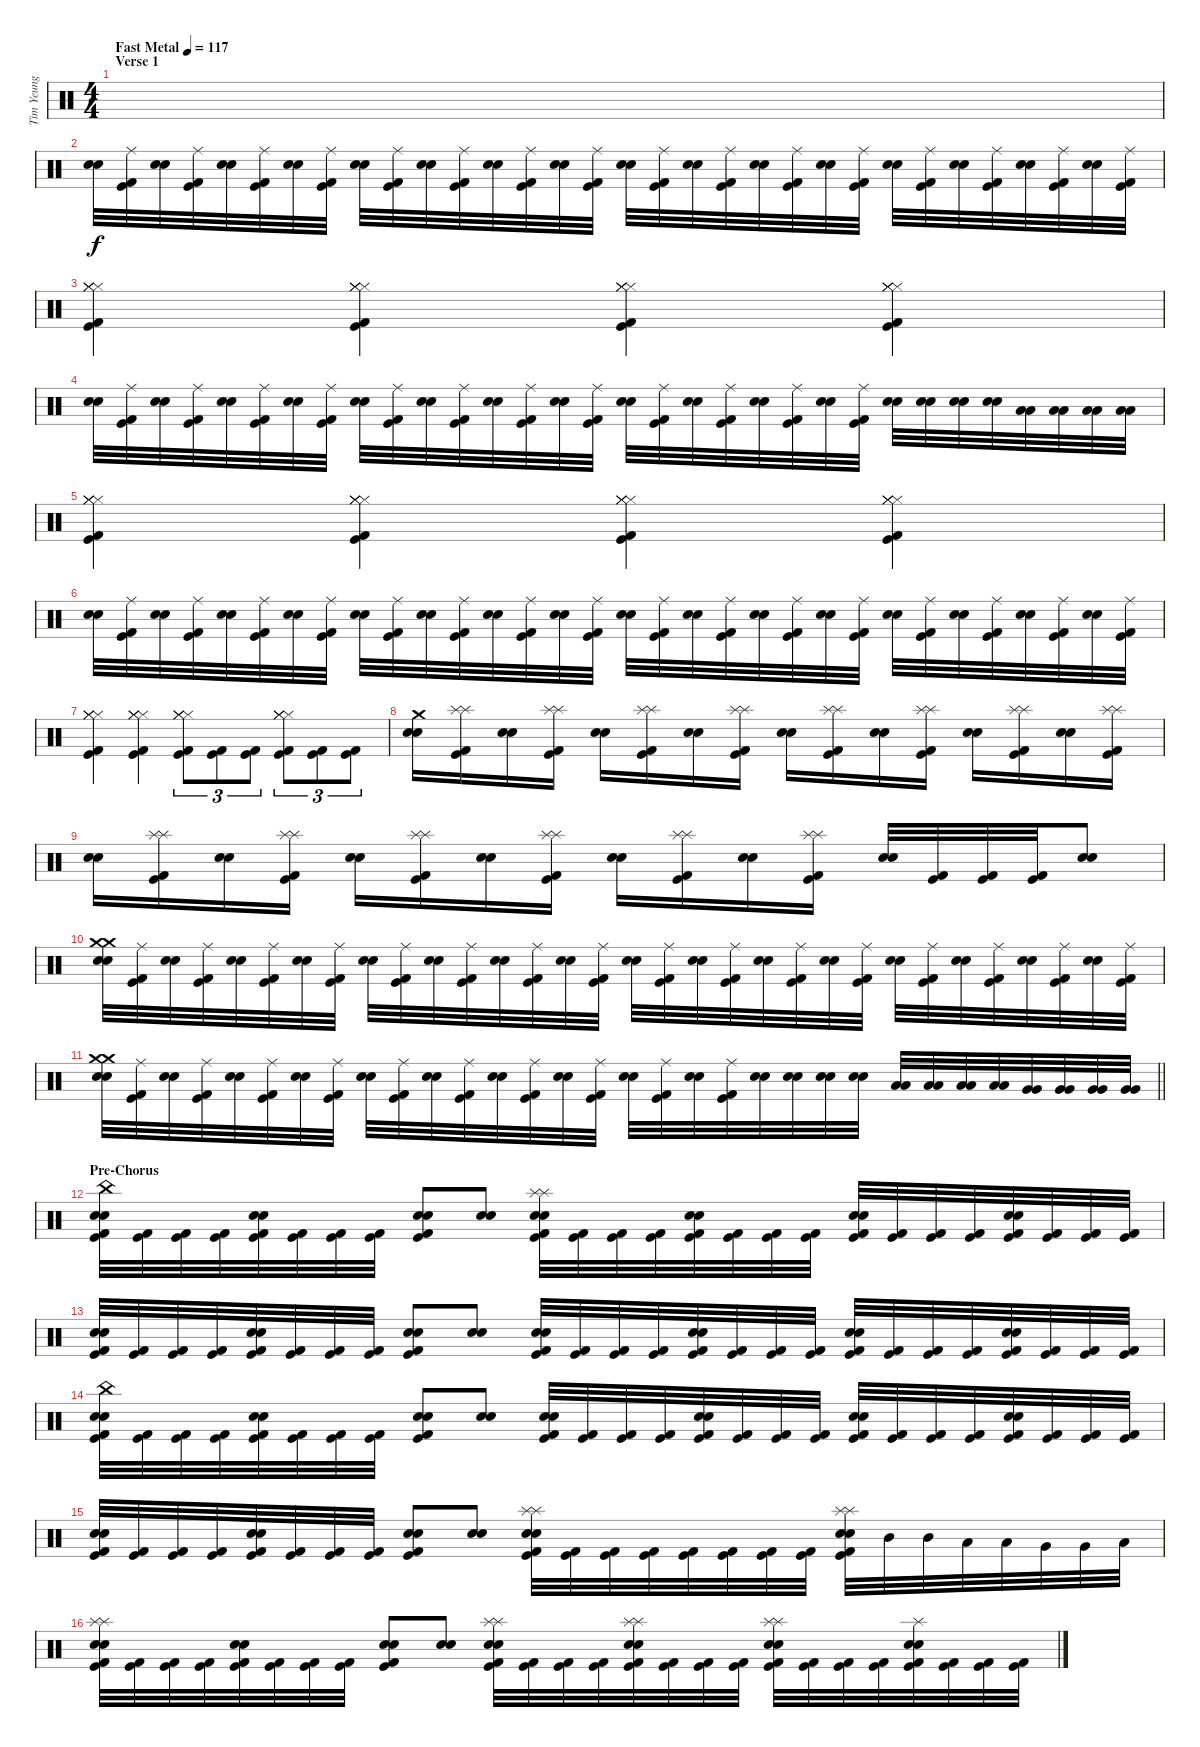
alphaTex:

\track ("Tim Yeung" "Tim Yeung") {instrument percussion}
\staff {score}
\articulation defaults
\ts (4 4)
\section ("" "Verse 1")
\tempo (117 "Fast Metal")
\clef neutral
\ks c
|
("Electric Snare (hit)" "Snare (hit) 2").32 ("Ride (middle)" "Kick (hit)" "Kick (hit) 2").32 ("Electric Snare (hit)" "Snare (hit) 2").32 ("Ride (middle)" "Kick (hit)" "Kick (hit) 2").32 ("Electric Snare (hit)" "Snare (hit) 2").32 ("Ride (middle)" "Kick (hit)" "Kick (hit) 2").32 ("Electric Snare (hit)" "Snare (hit) 2").32 ("Ride (middle)" "Kick (hit)" "Kick (hit) 2").32 ("Electric Snare (hit)" "Snare (hit) 2").32 ("Ride (middle)" "Kick (hit)" "Kick (hit) 2").32 ("Electric Snare (hit)" "Snare (hit) 2").32 ("Ride (middle)" "Kick (hit)" "Kick (hit) 2").32 ("Electric Snare (hit)" "Snare (hit) 2").32 ("Ride (middle)" "Kick (hit)" "Kick (hit) 2").32 ("Electric Snare (hit)" "Snare (hit) 2").32 ("Ride (middle)" "Kick (hit)" "Kick (hit) 2").32 ("Electric Snare (hit)" "Snare (hit) 2").32 ("Ride (middle)" "Kick (hit)" "Kick (hit) 2").32 ("Electric Snare (hit)" "Snare (hit) 2").32 ("Ride (middle)" "Kick (hit)" "Kick (hit) 2").32 ("Electric Snare (hit)" "Snare (hit) 2").32 ("Ride (middle)" "Kick (hit)" "Kick (hit) 2").32 ("Electric Snare (hit)" "Snare (hit) 2").32 ("Ride (middle)" "Kick (hit)" "Kick (hit) 2").32 ("Electric Snare (hit)" "Snare (hit) 2").32 ("Ride (middle)" "Kick (hit)" "Kick (hit) 2").32 ("Electric Snare (hit)" "Snare (hit) 2").32 ("Ride (middle)" "Kick (hit)" "Kick (hit) 2").32 ("Electric Snare (hit)" "Snare (hit) 2").32 ("Ride (middle)" "Kick (hit)" "Kick (hit) 2").32 ("Electric Snare (hit)" "Snare (hit) 2").32 ("Ride (middle)" "Kick (hit)" "Kick (hit) 2").32 |
("Hi-Hat (closed)" "Hi-Hat (closed)" "Hi-Hat (closed)" "Hi-Hat (closed)" "Kick (hit)" "Kick (hit) 2").4 ("Hi-Hat (closed)" "Hi-Hat (closed)" "Hi-Hat (closed)" "Hi-Hat (closed)" "Kick (hit)" "Kick (hit) 2").4 ("Hi-Hat (closed)" "Hi-Hat (closed)" "Hi-Hat (closed)" "Hi-Hat (closed)" "Kick (hit)" "Kick (hit) 2").4 ("Hi-Hat (closed)" "Hi-Hat (closed)" "Hi-Hat (closed)" "Hi-Hat (closed)" "Kick (hit)" "Kick (hit) 2").4 |
("Electric Snare (hit)" "Snare (hit) 2").32 ("Ride (middle)" "Kick (hit)" "Kick (hit) 2").32 ("Electric Snare (hit)" "Snare (hit) 2").32 ("Ride (middle)" "Kick (hit)" "Kick (hit) 2").32 ("Electric Snare (hit)" "Snare (hit) 2").32 ("Ride (middle)" "Kick (hit)" "Kick (hit) 2").32 ("Electric Snare (hit)" "Snare (hit) 2").32 ("Ride (middle)" "Kick (hit)" "Kick (hit) 2").32 ("Electric Snare (hit)" "Snare (hit) 2").32 ("Ride (middle)" "Kick (hit)" "Kick (hit) 2").32 ("Electric Snare (hit)" "Snare (hit) 2").32 ("Ride (middle)" "Kick (hit)" "Kick (hit) 2").32 ("Electric Snare (hit)" "Snare (hit) 2").32 ("Ride (middle)" "Kick (hit)" "Kick (hit) 2").32 ("Electric Snare (hit)" "Snare (hit) 2").32 ("Ride (middle)" "Kick (hit)" "Kick (hit) 2").32 ("Electric Snare (hit)" "Snare (hit) 2").32 ("Ride (middle)" "Kick (hit)" "Kick (hit) 2").32 ("Electric Snare (hit)" "Snare (hit) 2").32 ("Ride (middle)" "Kick (hit)" "Kick (hit) 2").32 ("Electric Snare (hit)" "Snare (hit) 2").32 ("Ride (middle)" "Kick (hit)" "Kick (hit) 2").32 ("Electric Snare (hit)" "Snare (hit) 2").32 ("Ride (middle)" "Kick (hit)" "Kick (hit) 2").32 ("Electric Snare (hit)" "Snare (hit) 2").32 ("Electric Snare (hit)" "Snare (hit) 2").32 ("Electric Snare (hit)" "Snare (hit) 2").32 ("Electric Snare (hit)" "Snare (hit) 2").32 ("Low Tom (hit)" "Low Tom (hit)").32 ("Low Tom (hit)" "Low Tom (hit)").32 ("Low Tom (hit)" "Low Tom (hit)").32 ("Low Tom (hit)" "Low Tom (hit)").32 |
("Hi-Hat (closed)" "Hi-Hat (closed)" "Hi-Hat (closed)" "Hi-Hat (closed)" "Kick (hit)" "Kick (hit) 2").4 ("Hi-Hat (closed)" "Hi-Hat (closed)" "Hi-Hat (closed)" "Hi-Hat (closed)" "Kick (hit)" "Kick (hit) 2").4 ("Hi-Hat (closed)" "Hi-Hat (closed)" "Hi-Hat (closed)" "Hi-Hat (closed)" "Kick (hit)" "Kick (hit) 2").4 ("Hi-Hat (closed)" "Hi-Hat (closed)" "Hi-Hat (closed)" "Hi-Hat (closed)" "Kick (hit)" "Kick (hit) 2").4 |
("Electric Snare (hit)" "Snare (hit) 2").32 ("Ride (middle)" "Kick (hit)" "Kick (hit) 2").32 ("Electric Snare (hit)" "Snare (hit) 2").32 ("Ride (middle)" "Kick (hit)" "Kick (hit) 2").32 ("Electric Snare (hit)" "Snare (hit) 2").32 ("Ride (middle)" "Kick (hit)" "Kick (hit) 2").32 ("Electric Snare (hit)" "Snare (hit) 2").32 ("Ride (middle)" "Kick (hit)" "Kick (hit) 2").32 ("Electric Snare (hit)" "Snare (hit) 2").32 ("Ride (middle)" "Kick (hit)" "Kick (hit) 2").32 ("Electric Snare (hit)" "Snare (hit) 2").32 ("Ride (middle)" "Kick (hit)" "Kick (hit) 2").32 ("Electric Snare (hit)" "Snare (hit) 2").32 ("Ride (middle)" "Kick (hit)" "Kick (hit) 2").32 ("Electric Snare (hit)" "Snare (hit) 2").32 ("Ride (middle)" "Kick (hit)" "Kick (hit) 2").32 ("Electric Snare (hit)" "Snare (hit) 2").32 ("Ride (middle)" "Kick (hit)" "Kick (hit) 2").32 ("Electric Snare (hit)" "Snare (hit) 2").32 ("Ride (middle)" "Kick (hit)" "Kick (hit) 2").32 ("Electric Snare (hit)" "Snare (hit) 2").32 ("Ride (middle)" "Kick (hit)" "Kick (hit) 2").32 ("Electric Snare (hit)" "Snare (hit) 2").32 ("Ride (middle)" "Kick (hit)" "Kick (hit) 2").32 ("Electric Snare (hit)" "Snare (hit) 2").32 ("Ride (middle)" "Kick (hit)" "Kick (hit) 2").32 ("Electric Snare (hit)" "Snare (hit) 2").32 ("Ride (middle)" "Kick (hit)" "Kick (hit) 2").32 ("Electric Snare (hit)" "Snare (hit) 2").32 ("Ride (middle)" "Kick (hit)" "Kick (hit) 2").32 ("Electric Snare (hit)" "Snare (hit) 2").32 ("Ride (middle)" "Kick (hit)" "Kick (hit) 2").32 |
("Hi-Hat (closed)" "Hi-Hat (closed)" "Hi-Hat (closed)" "Hi-Hat (closed)" "Kick (hit)" "Kick (hit) 2").4 ("Hi-Hat (closed)" "Hi-Hat (closed)" "Hi-Hat (closed)" "Hi-Hat (closed)" "Kick (hit)" "Kick (hit) 2").4 ("Hi-Hat (closed)" "Hi-Hat (closed)" "Hi-Hat (closed)" "Hi-Hat (closed)" "Kick (hit)" "Kick (hit) 2").8{tu (3 2)} ("Kick (hit)" "Kick (hit) 2").8{tu (3 2)} ("Kick (hit)" "Kick (hit) 2").8{tu (3 2)} ("Hi-Hat (closed)" "Hi-Hat (closed)" "Hi-Hat (closed)" "Hi-Hat (closed)" "Kick (hit)" "Kick (hit) 2").8{tu (3 2)} ("Kick (hit)" "Kick (hit) 2").8{tu (3 2)} ("Kick (hit)" "Kick (hit) 2").8{tu (3 2)} |
("Crash medium (hit)" "Electric Snare (hit)" "Snare (hit) 2").16 ("Splash (hit)" "Splash (hit)" "Kick (hit)" "Kick (hit) 2").16 ("Electric Snare (hit)" "Snare (hit) 2").16 ("Splash (hit)" "Splash (hit)" "Kick (hit)" "Kick (hit) 2").16 ("Electric Snare (hit)" "Snare (hit) 2").16 ("Splash (hit)" "Splash (hit)" "Kick (hit)" "Kick (hit) 2").16 ("Electric Snare (hit)" "Snare (hit) 2").16 ("Splash (hit)" "Splash (hit)" "Kick (hit)" "Kick (hit) 2").16 ("Electric Snare (hit)" "Snare (hit) 2").16 ("Splash (hit)" "Splash (hit)" "Kick (hit)" "Kick (hit) 2").16 ("Electric Snare (hit)" "Snare (hit) 2").16 ("Splash (hit)" "Splash (hit)" "Kick (hit)" "Kick (hit) 2").16 ("Electric Snare (hit)" "Snare (hit) 2").16 ("Splash (hit)" "Splash (hit)" "Kick (hit)" "Kick (hit) 2").16 ("Electric Snare (hit)" "Snare (hit) 2").16 ("Splash (hit)" "Splash (hit)" "Kick (hit)" "Kick (hit) 2").16 |
("Electric Snare (hit)" "Snare (hit) 2").16 ("Splash (hit)" "Splash (hit)" "Kick (hit)" "Kick (hit) 2").16 ("Electric Snare (hit)" "Snare (hit) 2").16 ("Splash (hit)" "Splash (hit)" "Kick (hit)" "Kick (hit) 2").16 ("Electric Snare (hit)" "Snare (hit) 2").16 ("Splash (hit)" "Splash (hit)" "Kick (hit)" "Kick (hit) 2").16 ("Electric Snare (hit)" "Snare (hit) 2").16 ("Splash (hit)" "Splash (hit)" "Kick (hit)" "Kick (hit) 2").16 ("Electric Snare (hit)" "Snare (hit) 2").16 ("Splash (hit)" "Splash (hit)" "Kick (hit)" "Kick (hit) 2").16 ("Electric Snare (hit)" "Snare (hit) 2").16 ("Splash (hit)" "Splash (hit)" "Kick (hit)" "Kick (hit) 2").16 ("Electric Snare (hit)" "Snare (hit) 2").32 ("Kick (hit)" "Kick (hit) 2").32 ("Kick (hit)" "Kick (hit) 2").32 ("Kick (hit)" "Kick (hit) 2").32 ("Electric Snare (hit)" "Snare (hit) 2").8 |
("Crash medium (hit)" "Crash medium (hit)" "Electric Snare (hit)" "Snare (hit) 2").32 ("Ride (middle)" "Kick (hit)" "Kick (hit) 2").32 ("Electric Snare (hit)" "Snare (hit) 2").32 ("Ride (middle)" "Kick (hit)" "Kick (hit) 2").32 ("Electric Snare (hit)" "Snare (hit) 2").32 ("Ride (middle)" "Kick (hit)" "Kick (hit) 2").32 ("Electric Snare (hit)" "Snare (hit) 2").32 ("Ride (middle)" "Kick (hit)" "Kick (hit) 2").32 ("Electric Snare (hit)" "Snare (hit) 2").32 ("Ride (middle)" "Kick (hit)" "Kick (hit) 2").32 ("Electric Snare (hit)" "Snare (hit) 2").32 ("Ride (middle)" "Kick (hit)" "Kick (hit) 2").32 ("Electric Snare (hit)" "Snare (hit) 2").32 ("Ride (middle)" "Kick (hit)" "Kick (hit) 2").32 ("Electric Snare (hit)" "Snare (hit) 2").32 ("Ride (middle)" "Kick (hit)" "Kick (hit) 2").32 ("Electric Snare (hit)" "Snare (hit) 2").32 ("Ride (middle)" "Kick (hit)" "Kick (hit) 2").32 ("Electric Snare (hit)" "Snare (hit) 2").32 ("Ride (middle)" "Kick (hit)" "Kick (hit) 2").32 ("Electric Snare (hit)" "Snare (hit) 2").32 ("Ride (middle)" "Kick (hit)" "Kick (hit) 2").32 ("Electric Snare (hit)" "Snare (hit) 2").32 ("Ride (middle)" "Kick (hit)" "Kick (hit) 2").32 ("Electric Snare (hit)" "Snare (hit) 2").32 ("Ride (middle)" "Kick (hit)" "Kick (hit) 2").32 ("Electric Snare (hit)" "Snare (hit) 2").32 ("Ride (middle)" "Kick (hit)" "Kick (hit) 2").32 ("Electric Snare (hit)" "Snare (hit) 2").32 ("Ride (middle)" "Kick (hit)" "Kick (hit) 2").32 ("Electric Snare (hit)" "Snare (hit) 2").32 ("Ride (middle)" "Kick (hit)" "Kick (hit) 2").32 |
\barLineRight lightlight
("Crash medium (hit)" "Crash medium (hit)" "Electric Snare (hit)" "Snare (hit) 2").32 ("Ride (middle)" "Kick (hit)" "Kick (hit) 2").32 ("Electric Snare (hit)" "Snare (hit) 2").32 ("Ride (middle)" "Kick (hit)" "Kick (hit) 2").32 ("Electric Snare (hit)" "Snare (hit) 2").32 ("Ride (middle)" "Kick (hit)" "Kick (hit) 2").32 ("Electric Snare (hit)" "Snare (hit) 2").32 ("Ride (middle)" "Kick (hit)" "Kick (hit) 2").32 ("Electric Snare (hit)" "Snare (hit) 2").32 ("Ride (middle)" "Kick (hit)" "Kick (hit) 2").32 ("Electric Snare (hit)" "Snare (hit) 2").32 ("Ride (middle)" "Kick (hit)" "Kick (hit) 2").32 ("Electric Snare (hit)" "Snare (hit) 2").32 ("Ride (middle)" "Kick (hit)" "Kick (hit) 2").32 ("Electric Snare (hit)" "Snare (hit) 2").32 ("Ride (middle)" "Kick (hit)" "Kick (hit) 2").32 ("Electric Snare (hit)" "Snare (hit) 2").32 ("Ride (middle)" "Kick (hit)" "Kick (hit) 2").32 ("Electric Snare (hit)" "Snare (hit) 2").32 ("Ride (middle)" "Kick (hit)" "Kick (hit) 2").32 ("Electric Snare (hit)" "Snare (hit) 2").32 ("Electric Snare (hit)" "Snare (hit) 2").32 ("Electric Snare (hit)" "Snare (hit) 2").32 ("Electric Snare (hit)" "Snare (hit) 2").32 ("Low Tom (hit)" "Low Tom (hit)").32 ("Low Tom (hit)" "Low Tom (hit)").32 ("Low Tom (hit)" "Low Tom (hit)").32 ("Low Tom (hit)" "Low Tom (hit)").32 ("Very Low Tom (hit)" "Very Low Tom (hit)").32 ("Very Low Tom (hit)" "Very Low Tom (hit)").32 ("Very Low Tom (hit)" "Very Low Tom (hit)").32 ("Very Low Tom (hit)" "Very Low Tom (hit)").32 |
\section ("" "Pre-Chorus")
("China (hit)" "Electric Snare (hit)" "Snare (hit) 2" "Kick (hit)" "Kick (hit) 2").32 ("Kick (hit)" "Kick (hit) 2").32 ("Kick (hit)" "Kick (hit) 2").32 ("Kick (hit)" "Kick (hit) 2").32 ("Electric Snare (hit)" "Snare (hit) 2" "Kick (hit)" "Kick (hit) 2").32 ("Kick (hit)" "Kick (hit) 2").32 ("Kick (hit)" "Kick (hit) 2").32 ("Kick (hit)" "Kick (hit) 2").32 ("Electric Snare (hit)" "Snare (hit) 2" "Kick (hit)" "Kick (hit) 2").8 ("Electric Snare (hit)" "Snare (hit) 2").8 ("Splash (hit)" "Splash (hit)" "Electric Snare (hit)" "Snare (hit) 2" "Kick (hit)" "Kick (hit) 2").32 ("Kick (hit)" "Kick (hit) 2").32 ("Kick (hit)" "Kick (hit) 2").32 ("Kick (hit)" "Kick (hit) 2").32 ("Electric Snare (hit)" "Snare (hit) 2" "Kick (hit)" "Kick (hit) 2").32 ("Kick (hit)" "Kick (hit) 2").32 ("Kick (hit)" "Kick (hit) 2").32 ("Kick (hit)" "Kick (hit) 2").32 ("Electric Snare (hit)" "Snare (hit) 2" "Kick (hit)" "Kick (hit) 2").32 ("Kick (hit)" "Kick (hit) 2").32 ("Kick (hit)" "Kick (hit) 2").32 ("Kick (hit)" "Kick (hit) 2").32 ("Electric Snare (hit)" "Snare (hit) 2" "Kick (hit)" "Kick (hit) 2").32 ("Kick (hit)" "Kick (hit) 2").32 ("Kick (hit)" "Kick (hit) 2").32 ("Kick (hit)" "Kick (hit) 2").32 |
("Electric Snare (hit)" "Snare (hit) 2" "Kick (hit)" "Kick (hit) 2").32 ("Kick (hit)" "Kick (hit) 2").32 ("Kick (hit)" "Kick (hit) 2").32 ("Kick (hit)" "Kick (hit) 2").32 ("Electric Snare (hit)" "Snare (hit) 2" "Kick (hit)" "Kick (hit) 2").32 ("Kick (hit)" "Kick (hit) 2").32 ("Kick (hit)" "Kick (hit) 2").32 ("Kick (hit)" "Kick (hit) 2").32 ("Electric Snare (hit)" "Snare (hit) 2" "Kick (hit)" "Kick (hit) 2").8 ("Electric Snare (hit)" "Snare (hit) 2").8 ("Electric Snare (hit)" "Snare (hit) 2" "Kick (hit)" "Kick (hit) 2").32 ("Kick (hit)" "Kick (hit) 2").32 ("Kick (hit)" "Kick (hit) 2").32 ("Kick (hit)" "Kick (hit) 2").32 ("Electric Snare (hit)" "Snare (hit) 2" "Kick (hit)" "Kick (hit) 2").32 ("Kick (hit)" "Kick (hit) 2").32 ("Kick (hit)" "Kick (hit) 2").32 ("Kick (hit)" "Kick (hit) 2").32 ("Electric Snare (hit)" "Snare (hit) 2" "Kick (hit)" "Kick (hit) 2").32 ("Kick (hit)" "Kick (hit) 2").32 ("Kick (hit)" "Kick (hit) 2").32 ("Kick (hit)" "Kick (hit) 2").32 ("Electric Snare (hit)" "Snare (hit) 2" "Kick (hit)" "Kick (hit) 2").32 ("Kick (hit)" "Kick (hit) 2").32 ("Kick (hit)" "Kick (hit) 2").32 ("Kick (hit)" "Kick (hit) 2").32 |
("China (hit)" "Electric Snare (hit)" "Snare (hit) 2" "Kick (hit)" "Kick (hit) 2").32 ("Kick (hit)" "Kick (hit) 2").32 ("Kick (hit)" "Kick (hit) 2").32 ("Kick (hit)" "Kick (hit) 2").32 ("Electric Snare (hit)" "Snare (hit) 2" "Kick (hit)" "Kick (hit) 2").32 ("Kick (hit)" "Kick (hit) 2").32 ("Kick (hit)" "Kick (hit) 2").32 ("Kick (hit)" "Kick (hit) 2").32 ("Electric Snare (hit)" "Snare (hit) 2" "Kick (hit)" "Kick (hit) 2").8 ("Electric Snare (hit)" "Snare (hit) 2").8 ("Electric Snare (hit)" "Snare (hit) 2" "Kick (hit)" "Kick (hit) 2").32 ("Kick (hit)" "Kick (hit) 2").32 ("Kick (hit)" "Kick (hit) 2").32 ("Kick (hit)" "Kick (hit) 2").32 ("Electric Snare (hit)" "Snare (hit) 2" "Kick (hit)" "Kick (hit) 2").32 ("Kick (hit)" "Kick (hit) 2").32 ("Kick (hit)" "Kick (hit) 2").32 ("Kick (hit)" "Kick (hit) 2").32 ("Electric Snare (hit)" "Snare (hit) 2" "Kick (hit)" "Kick (hit) 2").32 ("Kick (hit)" "Kick (hit) 2").32 ("Kick (hit)" "Kick (hit) 2").32 ("Kick (hit)" "Kick (hit) 2").32 ("Electric Snare (hit)" "Snare (hit) 2" "Kick (hit)" "Kick (hit) 2").32 ("Kick (hit)" "Kick (hit) 2").32 ("Kick (hit)" "Kick (hit) 2").32 ("Kick (hit)" "Kick (hit) 2").32 |
("Electric Snare (hit)" "Snare (hit) 2" "Kick (hit)" "Kick (hit) 2").32 ("Kick (hit)" "Kick (hit) 2").32 ("Kick (hit)" "Kick (hit) 2").32 ("Kick (hit)" "Kick (hit) 2").32 ("Electric Snare (hit)" "Snare (hit) 2" "Kick (hit)" "Kick (hit) 2").32 ("Kick (hit)" "Kick (hit) 2").32 ("Kick (hit)" "Kick (hit) 2").32 ("Kick (hit)" "Kick (hit) 2").32 ("Electric Snare (hit)" "Snare (hit) 2" "Kick (hit)" "Kick (hit) 2").8 ("Electric Snare (hit)" "Snare (hit) 2").8 ("Splash (hit)" "Splash (hit)" "Electric Snare (hit)" "Snare (hit) 2" "Kick (hit)" "Kick (hit) 2").32 ("Kick (hit)" "Kick (hit) 2").32 ("Kick (hit)" "Kick (hit) 2").32 ("Kick (hit)" "Kick (hit) 2").32 ("Kick (hit)" "Kick (hit) 2").32 ("Kick (hit)" "Kick (hit) 2").32 ("Kick (hit)" "Kick (hit) 2").32 ("Kick (hit)" "Kick (hit) 2").32 ("Splash (hit)" "Splash (hit)" "Electric Snare (hit)" "Snare (hit) 2" "Kick (hit)" "Kick (hit) 2").32 "Mid Tom (hit)".32 "Mid Tom (hit)".32 "Low Tom (hit)".32 "Low Tom (hit)".32 "Very Low Tom (hit)".32 "Very Low Tom (hit)".32 "Low Floor Tom (hit)".32 |
("Splash (hit)" "Splash (hit)" "Electric Snare (hit)" "Snare (hit) 2" "Kick (hit)" "Kick (hit) 2").32 ("Kick (hit)" "Kick (hit) 2").32 ("Kick (hit)" "Kick (hit) 2").32 ("Kick (hit)" "Kick (hit) 2").32 ("Electric Snare (hit)" "Snare (hit) 2" "Kick (hit)" "Kick (hit) 2").32 ("Kick (hit)" "Kick (hit) 2").32 ("Kick (hit)" "Kick (hit) 2").32 ("Kick (hit)" "Kick (hit) 2").32 ("Electric Snare (hit)" "Snare (hit) 2" "Kick (hit)" "Kick (hit) 2").8 ("Electric Snare (hit)" "Snare (hit) 2").8 ("Splash (hit)" "Splash (hit)" "Electric Snare (hit)" "Snare (hit) 2" "Kick (hit)" "Kick (hit) 2").32 ("Kick (hit)" "Kick (hit) 2").32 ("Kick (hit)" "Kick (hit) 2").32 ("Kick (hit)" "Kick (hit) 2").32 ("Splash (hit)" "Splash (hit)" "Electric Snare (hit)" "Snare (hit) 2" "Kick (hit)" "Kick (hit) 2").32 ("Kick (hit)" "Kick (hit) 2").32 ("Kick (hit)" "Kick (hit) 2").32 ("Kick (hit)" "Kick (hit) 2").32 ("Splash (hit)" "Splash (hit)" "Electric Snare (hit)" "Snare (hit) 2" "Kick (hit)" "Kick (hit) 2").32 ("Kick (hit)" "Kick (hit) 2").32 ("Kick (hit)" "Kick (hit) 2").32 ("Kick (hit)" "Kick (hit) 2").32 ("Splash (hit)" "Electric Snare (hit)" "Snare (hit) 2" "Kick (hit)" "Kick (hit) 2").32 ("Kick (hit)" "Kick (hit) 2").32 ("Kick (hit)" "Kick (hit) 2").32 ("Kick (hit)" "Kick (hit) 2").32
